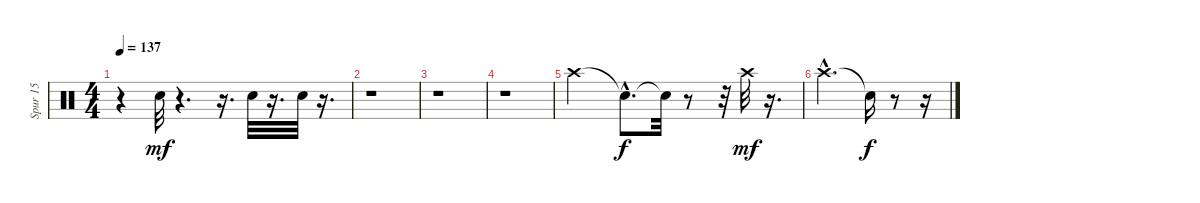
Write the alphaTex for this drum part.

\track ("Spur 15" "Spur 15") {instrument percussion}
\staff {score}
\articulation defaults
\ts (4 4)
\tempo 137
\clef neutral
\ks c
r.4{dy mf} "Hand Clap (hit)".32 r.4{d} r.16{d} "Hand Clap (hit)".32 r.16{d} "Hand Clap (hit)".32 r.16{d} |
r.1 |
r.1 |
r.1 |
"Crash high (hit)".2 "Snare (hit)"{hac t}.8{d dy f} "Snare (hit)"{t}.32 r.8 r.32 "Crash high (hit)".32{dy mf} r.16{d} |
"Crash high (hit)"{hac}.2{d} "Snare (hit)"{t}.16{dy f} r.8 r.16
